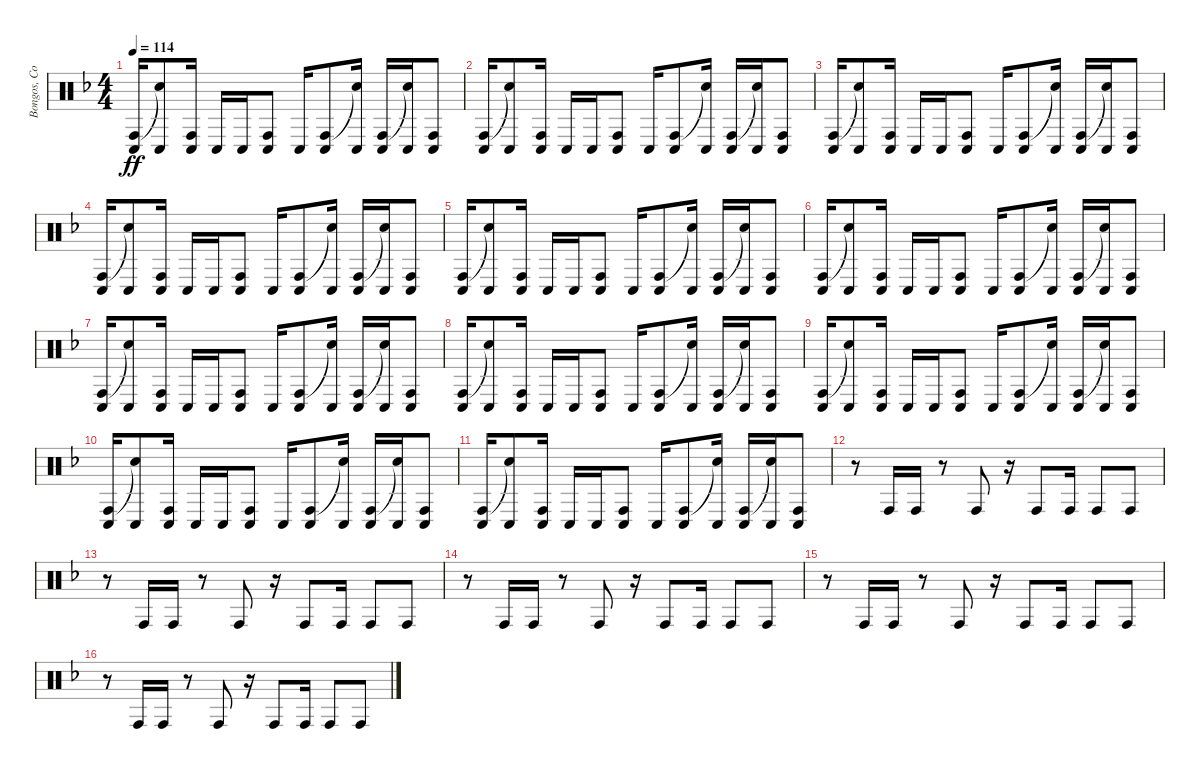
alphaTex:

\track ("Bongos, Congas, Timbales" "Bongos, Co") {instrument percussion}
\staff {score}
\articulation defaults
\ts (4 4)
\tempo 114
\clef neutral
\ks f
("Conga high (hit)" "Conga low (hit)").16{dy ff} ("Snare (hit)"{t} "Conga low (hit)").8 ("Conga high (hit)" "Conga low (hit)").16 "Conga low (hit)".16 "Conga low (hit)".16 ("Conga high (hit)" "Conga low (hit)").8 "Conga low (hit)".16 ("Conga high (hit)" "Conga low (hit)").8 ("Snare (hit)"{t} "Conga low (hit)").16 ("Conga high (hit)" "Conga low (hit)").16 ("Snare (hit)"{t} "Conga low (hit)").16 ("Conga high (hit)" "Conga low (hit)").8 |
("Conga high (hit)" "Conga low (hit)").16 ("Snare (hit)"{t} "Conga low (hit)").8 ("Conga high (hit)" "Conga low (hit)").16 "Conga low (hit)".16 "Conga low (hit)".16 ("Conga high (hit)" "Conga low (hit)").8 "Conga low (hit)".16 ("Conga high (hit)" "Conga low (hit)").8 ("Snare (hit)"{t} "Conga low (hit)").16 ("Conga high (hit)" "Conga low (hit)").16 ("Snare (hit)"{t} "Conga low (hit)").16 ("Conga high (hit)" "Conga low (hit)").8 |
("Conga high (hit)" "Conga low (hit)").16 ("Snare (hit)"{t} "Conga low (hit)").8 ("Conga high (hit)" "Conga low (hit)").16 "Conga low (hit)".16 "Conga low (hit)".16 ("Conga high (hit)" "Conga low (hit)").8 "Conga low (hit)".16 ("Conga high (hit)" "Conga low (hit)").8 ("Snare (hit)"{t} "Conga low (hit)").16 ("Conga high (hit)" "Conga low (hit)").16 ("Snare (hit)"{t} "Conga low (hit)").16 ("Conga high (hit)" "Conga low (hit)").8 |
("Conga high (hit)" "Conga low (hit)").16 ("Snare (hit)"{t} "Conga low (hit)").8 ("Conga high (hit)" "Conga low (hit)").16 "Conga low (hit)".16 "Conga low (hit)".16 ("Conga high (hit)" "Conga low (hit)").8 "Conga low (hit)".16 ("Conga high (hit)" "Conga low (hit)").8 ("Snare (hit)"{t} "Conga low (hit)").16 ("Conga high (hit)" "Conga low (hit)").16 ("Snare (hit)"{t} "Conga low (hit)").16 ("Conga high (hit)" "Conga low (hit)").8 |
("Conga high (hit)" "Conga low (hit)").16 ("Snare (hit)"{t} "Conga low (hit)").8 ("Conga high (hit)" "Conga low (hit)").16 "Conga low (hit)".16 "Conga low (hit)".16 ("Conga high (hit)" "Conga low (hit)").8 "Conga low (hit)".16 ("Conga high (hit)" "Conga low (hit)").8 ("Snare (hit)"{t} "Conga low (hit)").16 ("Conga high (hit)" "Conga low (hit)").16 ("Snare (hit)"{t} "Conga low (hit)").16 ("Conga high (hit)" "Conga low (hit)").8 |
("Conga high (hit)" "Conga low (hit)").16 ("Snare (hit)"{t} "Conga low (hit)").8 ("Conga high (hit)" "Conga low (hit)").16 "Conga low (hit)".16 "Conga low (hit)".16 ("Conga high (hit)" "Conga low (hit)").8 "Conga low (hit)".16 ("Conga high (hit)" "Conga low (hit)").8 ("Snare (hit)"{t} "Conga low (hit)").16 ("Conga high (hit)" "Conga low (hit)").16 ("Snare (hit)"{t} "Conga low (hit)").16 ("Conga high (hit)" "Conga low (hit)").8 |
("Conga high (hit)" "Conga low (hit)").16 ("Snare (hit)"{t} "Conga low (hit)").8 ("Conga high (hit)" "Conga low (hit)").16 "Conga low (hit)".16 "Conga low (hit)".16 ("Conga high (hit)" "Conga low (hit)").8 "Conga low (hit)".16 ("Conga high (hit)" "Conga low (hit)").8 ("Snare (hit)"{t} "Conga low (hit)").16 ("Conga high (hit)" "Conga low (hit)").16 ("Snare (hit)"{t} "Conga low (hit)").16 ("Conga high (hit)" "Conga low (hit)").8 |
("Conga high (hit)" "Conga low (hit)").16 ("Snare (hit)"{t} "Conga low (hit)").8 ("Conga high (hit)" "Conga low (hit)").16 "Conga low (hit)".16 "Conga low (hit)".16 ("Conga high (hit)" "Conga low (hit)").8 "Conga low (hit)".16 ("Conga high (hit)" "Conga low (hit)").8 ("Snare (hit)"{t} "Conga low (hit)").16 ("Conga high (hit)" "Conga low (hit)").16 ("Snare (hit)"{t} "Conga low (hit)").16 ("Conga high (hit)" "Conga low (hit)").8 |
("Conga high (hit)" "Conga low (hit)").16 ("Snare (hit)"{t} "Conga low (hit)").8 ("Conga high (hit)" "Conga low (hit)").16 "Conga low (hit)".16 "Conga low (hit)".16 ("Conga high (hit)" "Conga low (hit)").8 "Conga low (hit)".16 ("Conga high (hit)" "Conga low (hit)").8 ("Snare (hit)"{t} "Conga low (hit)").16 ("Conga high (hit)" "Conga low (hit)").16 ("Snare (hit)"{t} "Conga low (hit)").16 ("Conga high (hit)" "Conga low (hit)").8 |
("Conga high (hit)" "Conga low (hit)").16 ("Snare (hit)"{t} "Conga low (hit)").8 ("Conga high (hit)" "Conga low (hit)").16 "Conga low (hit)".16 "Conga low (hit)".16 ("Conga high (hit)" "Conga low (hit)").8 "Conga low (hit)".16 ("Conga high (hit)" "Conga low (hit)").8 ("Snare (hit)"{t} "Conga low (hit)").16 ("Conga high (hit)" "Conga low (hit)").16 ("Snare (hit)"{t} "Conga low (hit)").16 ("Conga high (hit)" "Conga low (hit)").8 |
("Conga high (hit)" "Conga low (hit)").16 ("Snare (hit)"{t} "Conga low (hit)").8 ("Conga high (hit)" "Conga low (hit)").16 "Conga low (hit)".16 "Conga low (hit)".16 ("Conga high (hit)" "Conga low (hit)").8 "Conga low (hit)".16 ("Conga high (hit)" "Conga low (hit)").8 ("Snare (hit)"{t} "Conga low (hit)").16 ("Conga high (hit)" "Conga low (hit)").16 ("Snare (hit)"{t} "Conga low (hit)").16 ("Conga high (hit)" "Conga low (hit)").8 |
r.8 "Conga high (hit)".16 "Conga high (hit)".16 r.8 "Conga high (hit)".8 r.16 "Conga high (hit)".8 "Conga high (hit)".16 "Conga high (hit)".8 "Conga high (hit)".8 |
r.8 "Conga high (hit)".16 "Conga high (hit)".16 r.8 "Conga high (hit)".8 r.16 "Conga high (hit)".8 "Conga high (hit)".16 "Conga high (hit)".8 "Conga high (hit)".8 |
r.8 "Conga high (hit)".16 "Conga high (hit)".16 r.8 "Conga high (hit)".8 r.16 "Conga high (hit)".8 "Conga high (hit)".16 "Conga high (hit)".8 "Conga high (hit)".8 |
r.8 "Conga high (hit)".16 "Conga high (hit)".16 r.8 "Conga high (hit)".8 r.16 "Conga high (hit)".8 "Conga high (hit)".16 "Conga high (hit)".8 "Conga high (hit)".8 |
r.8 "Conga high (hit)".16 "Conga high (hit)".16 r.8 "Conga high (hit)".8 r.16 "Conga high (hit)".8 "Conga high (hit)".16 "Conga high (hit)".8 "Conga high (hit)".8
